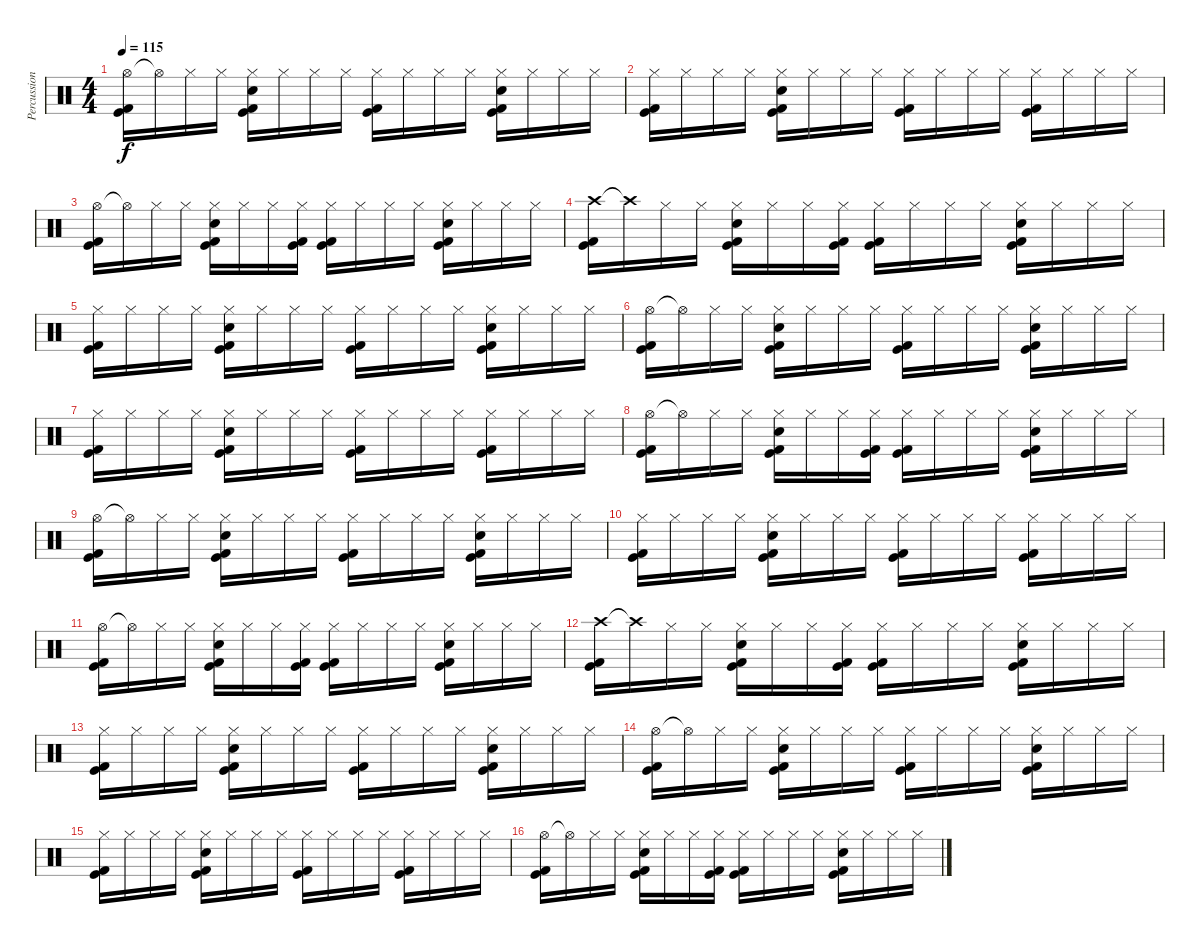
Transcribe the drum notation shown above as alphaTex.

\track ("Percussions" "Percussion") {instrument percussion}
\staff {score}
\articulation defaults
\ts (4 4)
\tempo 115
\clef neutral
\ks c
("Hi-Hat (open)" "Kick (hit) 2" "Kick (hit)").16{dy f} "Hi-Hat (open)"{t}.16 "Hi-Hat (closed)".16 "Hi-Hat (closed)".16 ("Hi-Hat (closed)" "Kick (hit) 2" "Snare (hit) 2" "Kick (hit)").16 "Hi-Hat (closed)".16 "Hi-Hat (closed)".16 "Hi-Hat (closed)".16 ("Hi-Hat (closed)" "Kick (hit) 2" "Kick (hit)").16 "Hi-Hat (closed)".16 "Hi-Hat (closed)".16 "Hi-Hat (closed)".16 ("Hi-Hat (closed)" "Kick (hit) 2" "Snare (hit) 2" "Kick (hit)").16 "Hi-Hat (closed)".16 "Hi-Hat (closed)".16 "Hi-Hat (closed)".16 |
("Hi-Hat (closed)" "Kick (hit) 2" "Kick (hit)").16 "Hi-Hat (closed)".16 "Hi-Hat (closed)".16 "Hi-Hat (closed)".16 ("Hi-Hat (closed)" "Kick (hit) 2" "Snare (hit) 2" "Kick (hit)").16 "Hi-Hat (closed)".16 "Hi-Hat (closed)".16 "Hi-Hat (closed)".16 ("Hi-Hat (closed)" "Kick (hit) 2" "Kick (hit)").16 "Hi-Hat (closed)".16 "Hi-Hat (closed)".16 "Hi-Hat (closed)".16 ("Hi-Hat (closed)" "Kick (hit) 2" "Kick (hit)").16 "Hi-Hat (closed)".16 "Hi-Hat (closed)".16 "Hi-Hat (closed)".16 |
("Hi-Hat (open)" "Kick (hit) 2" "Kick (hit)").16 "Hi-Hat (open)"{t}.16 "Hi-Hat (closed)".16 "Hi-Hat (closed)".16 ("Hi-Hat (closed)" "Kick (hit) 2" "Snare (hit) 2" "Kick (hit)").16 "Hi-Hat (closed)".16 "Hi-Hat (closed)".16 ("Hi-Hat (closed)" "Kick (hit) 2" "Kick (hit)").16 ("Hi-Hat (closed)" "Kick (hit) 2" "Kick (hit)").16 "Hi-Hat (closed)".16 "Hi-Hat (closed)".16 "Hi-Hat (closed)".16 ("Hi-Hat (closed)" "Kick (hit) 2" "Snare (hit) 2" "Kick (hit)").16 "Hi-Hat (closed)".16 "Hi-Hat (closed)".16 "Hi-Hat (closed)".16 |
("Crash high (hit)" "Kick (hit) 2" "Kick (hit)").16 "Crash high (hit)"{t}.16 "Hi-Hat (closed)".16 "Hi-Hat (closed)".16 ("Hi-Hat (closed)" "Kick (hit) 2" "Snare (hit) 2" "Kick (hit)").16 "Hi-Hat (closed)".16 "Hi-Hat (closed)".16 ("Hi-Hat (closed)" "Kick (hit) 2" "Kick (hit)").16 ("Hi-Hat (closed)" "Kick (hit) 2" "Kick (hit)").16 "Hi-Hat (closed)".16 "Hi-Hat (closed)".16 "Hi-Hat (closed)".16 ("Hi-Hat (closed)" "Kick (hit) 2" "Snare (hit) 2" "Kick (hit)").16 "Hi-Hat (closed)".16 "Hi-Hat (closed)".16 "Hi-Hat (closed)".16 |
("Hi-Hat (closed)" "Kick (hit) 2" "Kick (hit)").16 "Hi-Hat (closed)".16 "Hi-Hat (closed)".16 "Hi-Hat (closed)".16 ("Hi-Hat (closed)" "Kick (hit) 2" "Snare (hit) 2" "Kick (hit)").16 "Hi-Hat (closed)".16 "Hi-Hat (closed)".16 "Hi-Hat (closed)".16 ("Hi-Hat (closed)" "Kick (hit) 2" "Kick (hit)").16 "Hi-Hat (closed)".16 "Hi-Hat (closed)".16 "Hi-Hat (closed)".16 ("Hi-Hat (closed)" "Kick (hit) 2" "Snare (hit) 2" "Kick (hit)").16 "Hi-Hat (closed)".16 "Hi-Hat (closed)".16 "Hi-Hat (closed)".16 |
("Hi-Hat (open)" "Kick (hit) 2" "Kick (hit)").16 "Hi-Hat (open)"{t}.16 "Hi-Hat (closed)".16 "Hi-Hat (closed)".16 ("Hi-Hat (closed)" "Kick (hit) 2" "Snare (hit) 2" "Kick (hit)").16 "Hi-Hat (closed)".16 "Hi-Hat (closed)".16 "Hi-Hat (closed)".16 ("Hi-Hat (closed)" "Kick (hit) 2" "Kick (hit)").16 "Hi-Hat (closed)".16 "Hi-Hat (closed)".16 "Hi-Hat (closed)".16 ("Hi-Hat (closed)" "Kick (hit) 2" "Snare (hit) 2" "Kick (hit)").16 "Hi-Hat (closed)".16 "Hi-Hat (closed)".16 "Hi-Hat (closed)".16 |
("Hi-Hat (closed)" "Kick (hit) 2" "Kick (hit)").16 "Hi-Hat (closed)".16 "Hi-Hat (closed)".16 "Hi-Hat (closed)".16 ("Hi-Hat (closed)" "Kick (hit) 2" "Snare (hit) 2" "Kick (hit)").16 "Hi-Hat (closed)".16 "Hi-Hat (closed)".16 "Hi-Hat (closed)".16 ("Hi-Hat (closed)" "Kick (hit) 2" "Kick (hit)").16 "Hi-Hat (closed)".16 "Hi-Hat (closed)".16 "Hi-Hat (closed)".16 ("Hi-Hat (closed)" "Kick (hit) 2" "Kick (hit)").16 "Hi-Hat (closed)".16 "Hi-Hat (closed)".16 "Hi-Hat (closed)".16 |
("Hi-Hat (open)" "Kick (hit) 2" "Kick (hit)").16 "Hi-Hat (open)"{t}.16 "Hi-Hat (closed)".16 "Hi-Hat (closed)".16 ("Hi-Hat (closed)" "Kick (hit) 2" "Snare (hit) 2" "Kick (hit)").16 "Hi-Hat (closed)".16 "Hi-Hat (closed)".16 ("Hi-Hat (closed)" "Kick (hit) 2" "Kick (hit)").16 ("Hi-Hat (closed)" "Kick (hit) 2" "Kick (hit)").16 "Hi-Hat (closed)".16 "Hi-Hat (closed)".16 "Hi-Hat (closed)".16 ("Hi-Hat (closed)" "Kick (hit) 2" "Snare (hit) 2" "Kick (hit)").16 "Hi-Hat (closed)".16 "Hi-Hat (closed)".16 "Hi-Hat (closed)".16 |
("Hi-Hat (open)" "Kick (hit) 2" "Kick (hit)").16 "Hi-Hat (open)"{t}.16 "Hi-Hat (closed)".16 "Hi-Hat (closed)".16 ("Hi-Hat (closed)" "Kick (hit) 2" "Snare (hit) 2" "Kick (hit)").16 "Hi-Hat (closed)".16 "Hi-Hat (closed)".16 "Hi-Hat (closed)".16 ("Hi-Hat (closed)" "Kick (hit) 2" "Kick (hit)").16 "Hi-Hat (closed)".16 "Hi-Hat (closed)".16 "Hi-Hat (closed)".16 ("Hi-Hat (closed)" "Kick (hit) 2" "Snare (hit) 2" "Kick (hit)").16 "Hi-Hat (closed)".16 "Hi-Hat (closed)".16 "Hi-Hat (closed)".16 |
("Hi-Hat (closed)" "Kick (hit) 2" "Kick (hit)").16 "Hi-Hat (closed)".16 "Hi-Hat (closed)".16 "Hi-Hat (closed)".16 ("Hi-Hat (closed)" "Kick (hit) 2" "Snare (hit) 2" "Kick (hit)").16 "Hi-Hat (closed)".16 "Hi-Hat (closed)".16 "Hi-Hat (closed)".16 ("Hi-Hat (closed)" "Kick (hit) 2" "Kick (hit)").16 "Hi-Hat (closed)".16 "Hi-Hat (closed)".16 "Hi-Hat (closed)".16 ("Hi-Hat (closed)" "Kick (hit) 2" "Kick (hit)").16 "Hi-Hat (closed)".16 "Hi-Hat (closed)".16 "Hi-Hat (closed)".16 |
("Hi-Hat (open)" "Kick (hit) 2" "Kick (hit)").16 "Hi-Hat (open)"{t}.16 "Hi-Hat (closed)".16 "Hi-Hat (closed)".16 ("Hi-Hat (closed)" "Kick (hit) 2" "Snare (hit) 2" "Kick (hit)").16 "Hi-Hat (closed)".16 "Hi-Hat (closed)".16 ("Hi-Hat (closed)" "Kick (hit) 2" "Kick (hit)").16 ("Hi-Hat (closed)" "Kick (hit) 2" "Kick (hit)").16 "Hi-Hat (closed)".16 "Hi-Hat (closed)".16 "Hi-Hat (closed)".16 ("Hi-Hat (closed)" "Kick (hit) 2" "Snare (hit) 2" "Kick (hit)").16 "Hi-Hat (closed)".16 "Hi-Hat (closed)".16 "Hi-Hat (closed)".16 |
("Crash high (hit)" "Kick (hit) 2" "Kick (hit)").16 "Crash high (hit)"{t}.16 "Hi-Hat (closed)".16 "Hi-Hat (closed)".16 ("Hi-Hat (closed)" "Kick (hit) 2" "Snare (hit) 2" "Kick (hit)").16 "Hi-Hat (closed)".16 "Hi-Hat (closed)".16 ("Hi-Hat (closed)" "Kick (hit) 2" "Kick (hit)").16 ("Hi-Hat (closed)" "Kick (hit) 2" "Kick (hit)").16 "Hi-Hat (closed)".16 "Hi-Hat (closed)".16 "Hi-Hat (closed)".16 ("Hi-Hat (closed)" "Kick (hit) 2" "Snare (hit) 2" "Kick (hit)").16 "Hi-Hat (closed)".16 "Hi-Hat (closed)".16 "Hi-Hat (closed)".16 |
("Hi-Hat (closed)" "Kick (hit) 2" "Kick (hit)").16 "Hi-Hat (closed)".16 "Hi-Hat (closed)".16 "Hi-Hat (closed)".16 ("Hi-Hat (closed)" "Kick (hit) 2" "Snare (hit) 2" "Kick (hit)").16 "Hi-Hat (closed)".16 "Hi-Hat (closed)".16 "Hi-Hat (closed)".16 ("Hi-Hat (closed)" "Kick (hit) 2" "Kick (hit)").16 "Hi-Hat (closed)".16 "Hi-Hat (closed)".16 "Hi-Hat (closed)".16 ("Hi-Hat (closed)" "Kick (hit) 2" "Snare (hit) 2" "Kick (hit)").16 "Hi-Hat (closed)".16 "Hi-Hat (closed)".16 "Hi-Hat (closed)".16 |
("Hi-Hat (open)" "Kick (hit) 2" "Kick (hit)").16 "Hi-Hat (open)"{t}.16 "Hi-Hat (closed)".16 "Hi-Hat (closed)".16 ("Hi-Hat (closed)" "Kick (hit) 2" "Snare (hit) 2" "Kick (hit)").16 "Hi-Hat (closed)".16 "Hi-Hat (closed)".16 "Hi-Hat (closed)".16 ("Hi-Hat (closed)" "Kick (hit) 2" "Kick (hit)").16 "Hi-Hat (closed)".16 "Hi-Hat (closed)".16 "Hi-Hat (closed)".16 ("Hi-Hat (closed)" "Kick (hit) 2" "Snare (hit) 2" "Kick (hit)").16 "Hi-Hat (closed)".16 "Hi-Hat (closed)".16 "Hi-Hat (closed)".16 |
("Hi-Hat (closed)" "Kick (hit) 2" "Kick (hit)").16 "Hi-Hat (closed)".16 "Hi-Hat (closed)".16 "Hi-Hat (closed)".16 ("Hi-Hat (closed)" "Kick (hit) 2" "Snare (hit) 2" "Kick (hit)").16 "Hi-Hat (closed)".16 "Hi-Hat (closed)".16 "Hi-Hat (closed)".16 ("Hi-Hat (closed)" "Kick (hit) 2" "Kick (hit)").16 "Hi-Hat (closed)".16 "Hi-Hat (closed)".16 "Hi-Hat (closed)".16 ("Hi-Hat (closed)" "Kick (hit) 2" "Kick (hit)").16 "Hi-Hat (closed)".16 "Hi-Hat (closed)".16 "Hi-Hat (closed)".16 |
("Hi-Hat (open)" "Kick (hit) 2" "Kick (hit)").16 "Hi-Hat (open)"{t}.16 "Hi-Hat (closed)".16 "Hi-Hat (closed)".16 ("Hi-Hat (closed)" "Kick (hit) 2" "Snare (hit) 2" "Kick (hit)").16 "Hi-Hat (closed)".16 "Hi-Hat (closed)".16 ("Hi-Hat (closed)" "Kick (hit) 2" "Kick (hit)").16 ("Hi-Hat (closed)" "Kick (hit) 2" "Kick (hit)").16 "Hi-Hat (closed)".16 "Hi-Hat (closed)".16 "Hi-Hat (closed)".16 ("Hi-Hat (closed)" "Kick (hit) 2" "Snare (hit) 2" "Kick (hit)").16 "Hi-Hat (closed)".16 "Hi-Hat (closed)".16 "Hi-Hat (closed)".16
